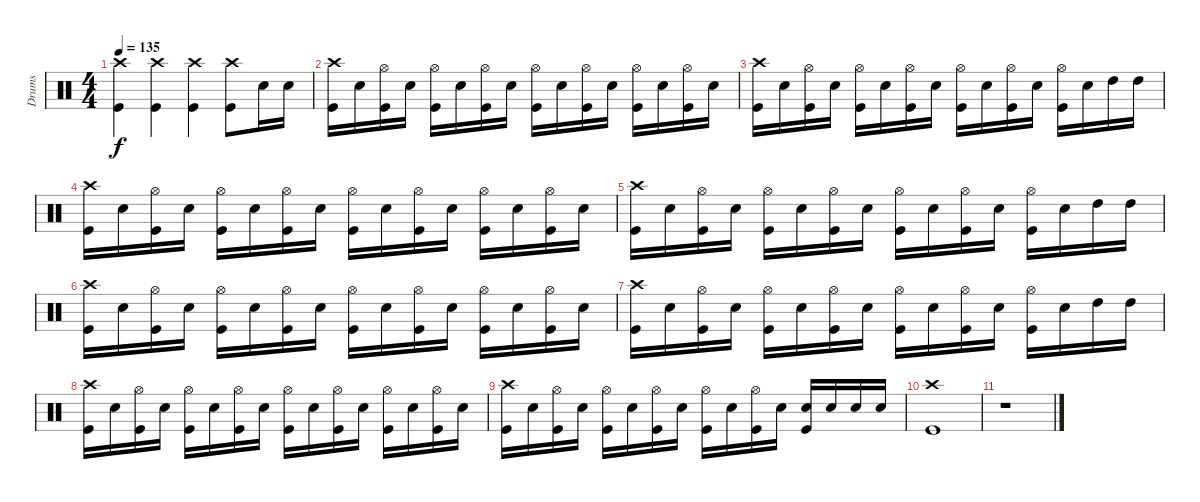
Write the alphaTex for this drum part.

\track ("Drums" "Drums") {instrument percussion}
\staff {score}
\articulation defaults
\ts (4 4)
\tempo 135
\clef neutral
\ks c
("Crash high (hit)" "Kick (hit)").4{dy f} ("Crash high (hit)" "Kick (hit)").4 ("Crash high (hit)" "Kick (hit)").4 ("Crash high (hit)" "Kick (hit)").8 "Snare (hit) 2".16 "Snare (hit) 2".16 |
("Crash high (hit)" "Kick (hit)").16 "Snare (hit) 2".16 ("Hi-Hat (open)" "Kick (hit)").16 "Snare (hit) 2".16 ("Hi-Hat (open)" "Kick (hit)").16 "Snare (hit) 2".16 ("Hi-Hat (open)" "Kick (hit)").16 "Snare (hit) 2".16 ("Hi-Hat (open)" "Kick (hit)").16 "Snare (hit) 2".16 ("Hi-Hat (open)" "Kick (hit)").16 "Snare (hit) 2".16 ("Hi-Hat (open)" "Kick (hit)").16 "Snare (hit) 2".16 ("Hi-Hat (open)" "Kick (hit)").16 "Snare (hit) 2".16 |
("Crash high (hit)" "Kick (hit)").16 "Snare (hit) 2".16 ("Hi-Hat (open)" "Kick (hit)").16 "Snare (hit) 2".16 ("Hi-Hat (open)" "Kick (hit)").16 "Snare (hit) 2".16 ("Hi-Hat (open)" "Kick (hit)").16 "Snare (hit) 2".16 ("Hi-Hat (open)" "Kick (hit)").16 "Snare (hit) 2".16 ("Hi-Hat (open)" "Kick (hit)").16 "Snare (hit) 2".16 ("Hi-Hat (open)" "Kick (hit)").16 "Snare (hit) 2".16 "High Tom (hit)".16 "High Tom (hit)".16 |
("Crash high (hit)" "Kick (hit)").16 "Snare (hit) 2".16 ("Hi-Hat (open)" "Kick (hit)").16 "Snare (hit) 2".16 ("Hi-Hat (open)" "Kick (hit)").16 "Snare (hit) 2".16 ("Hi-Hat (open)" "Kick (hit)").16 "Snare (hit) 2".16 ("Hi-Hat (open)" "Kick (hit)").16 "Snare (hit) 2".16 ("Hi-Hat (open)" "Kick (hit)").16 "Snare (hit) 2".16 ("Hi-Hat (open)" "Kick (hit)").16 "Snare (hit) 2".16 ("Hi-Hat (open)" "Kick (hit)").16 "Snare (hit) 2".16 |
("Crash high (hit)" "Kick (hit)").16 "Snare (hit) 2".16 ("Hi-Hat (open)" "Kick (hit)").16 "Snare (hit) 2".16 ("Hi-Hat (open)" "Kick (hit)").16 "Snare (hit) 2".16 ("Hi-Hat (open)" "Kick (hit)").16 "Snare (hit) 2".16 ("Hi-Hat (open)" "Kick (hit)").16 "Snare (hit) 2".16 ("Hi-Hat (open)" "Kick (hit)").16 "Snare (hit) 2".16 ("Hi-Hat (open)" "Kick (hit)").16 "Snare (hit) 2".16 "High Tom (hit)".16 "High Tom (hit)".16 |
("Crash high (hit)" "Kick (hit)").16 "Snare (hit) 2".16 ("Hi-Hat (open)" "Kick (hit)").16 "Snare (hit) 2".16 ("Hi-Hat (open)" "Kick (hit)").16 "Snare (hit) 2".16 ("Hi-Hat (open)" "Kick (hit)").16 "Snare (hit) 2".16 ("Hi-Hat (open)" "Kick (hit)").16 "Snare (hit) 2".16 ("Hi-Hat (open)" "Kick (hit)").16 "Snare (hit) 2".16 ("Hi-Hat (open)" "Kick (hit)").16 "Snare (hit) 2".16 ("Hi-Hat (open)" "Kick (hit)").16 "Snare (hit) 2".16 |
("Crash high (hit)" "Kick (hit)").16 "Snare (hit) 2".16 ("Hi-Hat (open)" "Kick (hit)").16 "Snare (hit) 2".16 ("Hi-Hat (open)" "Kick (hit)").16 "Snare (hit) 2".16 ("Hi-Hat (open)" "Kick (hit)").16 "Snare (hit) 2".16 ("Hi-Hat (open)" "Kick (hit)").16 "Snare (hit) 2".16 ("Hi-Hat (open)" "Kick (hit)").16 "Snare (hit) 2".16 ("Hi-Hat (open)" "Kick (hit)").16 "Snare (hit) 2".16 "High Tom (hit)".16 "High Tom (hit)".16 |
("Crash high (hit)" "Kick (hit)").16 "Snare (hit) 2".16 ("Hi-Hat (open)" "Kick (hit)").16 "Snare (hit) 2".16 ("Hi-Hat (open)" "Kick (hit)").16 "Snare (hit) 2".16 ("Hi-Hat (open)" "Kick (hit)").16 "Snare (hit) 2".16 ("Hi-Hat (open)" "Kick (hit)").16 "Snare (hit) 2".16 ("Hi-Hat (open)" "Kick (hit)").16 "Snare (hit) 2".16 ("Hi-Hat (open)" "Kick (hit)").16 "Snare (hit) 2".16 ("Hi-Hat (open)" "Kick (hit)").16 "Snare (hit) 2".16 |
("Crash high (hit)" "Kick (hit)").16 "Snare (hit) 2".16 ("Hi-Hat (open)" "Kick (hit)").16 "Snare (hit) 2".16 ("Hi-Hat (open)" "Kick (hit)").16 "Snare (hit) 2".16 ("Hi-Hat (open)" "Kick (hit)").16 "Snare (hit) 2".16 ("Hi-Hat (open)" "Kick (hit)").16 "Snare (hit) 2".16 ("Hi-Hat (open)" "Kick (hit)").16 "Snare (hit) 2".16 ("Snare (hit) 2" "Kick (hit)").16 "Snare (hit) 2".16 "Snare (hit) 2".16 "Snare (hit) 2".16 |
("Crash high (hit)" "Kick (hit)").1 |
r.1
